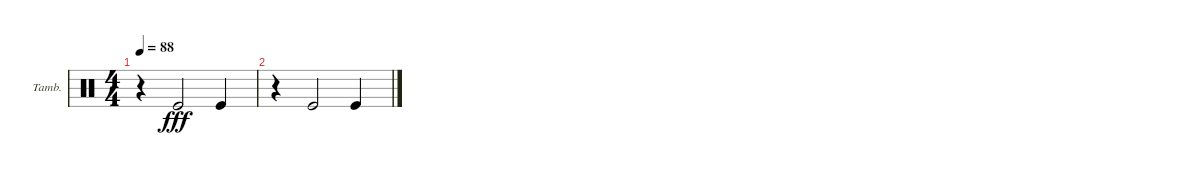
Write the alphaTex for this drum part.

\defaultSystemsLayout 4
\bracketExtendMode groupsimilarinstruments
\firstSystemTrackNameOrientation horizontal
\otherSystemsTrackNameOrientation horizontal
\track ("Helders" "Tamb.") {instrument percussion}
\staff {score}
\articulation defaults
\ts (4 4)
\tempo 88
\clef neutral
\ks c
r.4{dy fff} "Kick (hit)".2 "Kick (hit)".4 |
r.4 "Kick (hit)".2 "Kick (hit)".4
